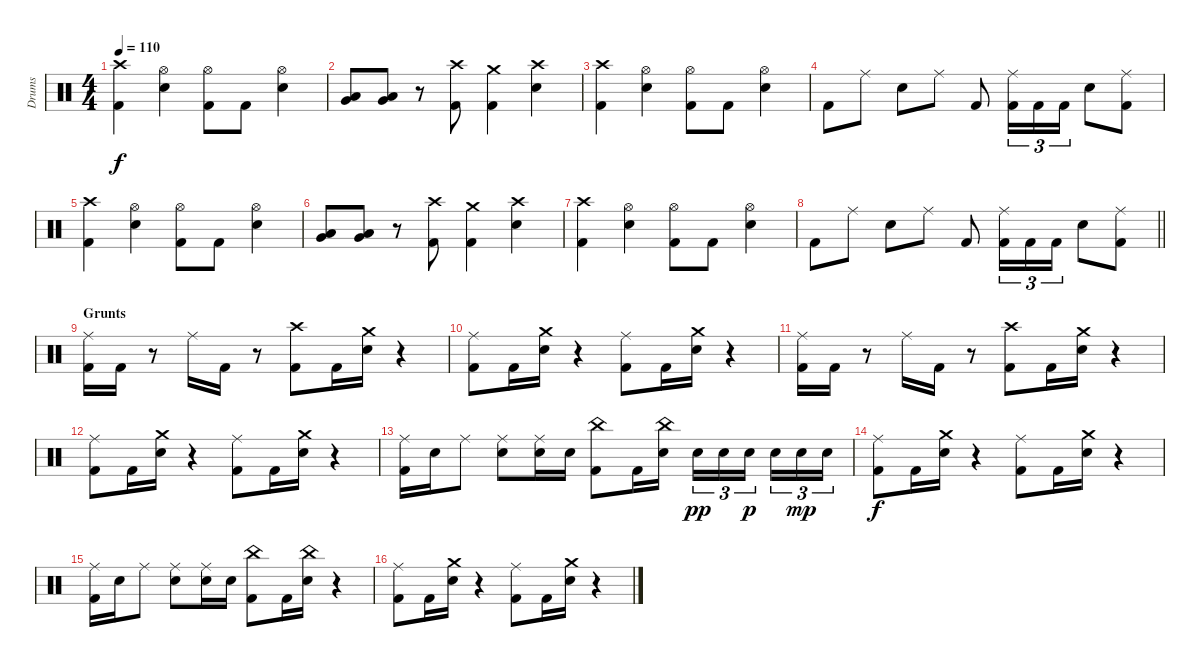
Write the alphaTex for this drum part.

\track ("Drums" "Drums") {instrument percussion}
\staff {score}
\articulation defaults
\ts (4 4)
\section ("" "")
\tempo 110
\clef neutral
\ks c
("Crash high (hit)" "Kick (hit) 2").4{dy f} ("Hi-Hat (open)" "Electric Snare (hit)").4 ("Hi-Hat (open)" "Kick (hit) 2").8 "Kick (hit) 2".8 ("Hi-Hat (open)" "Electric Snare (hit)").4 |
("Low Floor Tom (hit)" "Very Low Tom (hit)").8 ("Low Floor Tom (hit)" "Very Low Tom (hit)").8 r.8 ("Crash high (hit)" "Kick (hit) 2").8 ("Crash medium (hit)" "Kick (hit) 2").4 ("Crash high (hit)" "Electric Snare (hit)").4 |
("Crash high (hit)" "Kick (hit) 2").4 ("Hi-Hat (open)" "Electric Snare (hit)").4 ("Hi-Hat (open)" "Kick (hit) 2").8 "Kick (hit) 2".8 ("Hi-Hat (open)" "Electric Snare (hit)").4 |
"Kick (hit) 2".8 "Ride (middle)".8 "Electric Snare (hit)".8 "Ride (middle)".8 "Kick (hit) 2".8 ("Ride (middle)" "Kick (hit) 2").16{tu (3 2)} "Kick (hit) 2".16{tu (3 2)} "Kick (hit) 2".16{tu (3 2)} "Electric Snare (hit)".8 ("Ride (middle)" "Kick (hit) 2").8 |
("Crash high (hit)" "Kick (hit) 2").4 ("Hi-Hat (open)" "Electric Snare (hit)").4 ("Hi-Hat (open)" "Kick (hit) 2").8 "Kick (hit) 2".8 ("Hi-Hat (open)" "Electric Snare (hit)").4 |
("Low Floor Tom (hit)" "Very Low Tom (hit)").8 ("Low Floor Tom (hit)" "Very Low Tom (hit)").8 r.8 ("Crash high (hit)" "Kick (hit) 2").8 ("Crash medium (hit)" "Kick (hit) 2").4 ("Crash high (hit)" "Electric Snare (hit)").4 |
("Crash high (hit)" "Kick (hit) 2").4 ("Hi-Hat (open)" "Electric Snare (hit)").4 ("Hi-Hat (open)" "Kick (hit) 2").8 "Kick (hit) 2".8 ("Hi-Hat (open)" "Electric Snare (hit)").4 |
\barLineRight lightlight "Kick (hit) 2".8 "Ride (middle)".8 "Electric Snare (hit)".8 "Ride (middle)".8 "Kick (hit) 2".8
("Ride (middle)" "Kick (hit) 2").16{tu (3 2)} "Kick (hit) 2".16{tu (3 2)} "Kick (hit) 2".16{tu (3 2)} "Electric Snare (hit)".8 ("Ride (middle)" "Kick (hit) 2").8 |
\section ("" "Grunts")
("Ride (middle)" "Kick (hit) 2").16 "Kick (hit) 2".16 r.8 "Ride (middle)".16 "Kick (hit) 2".16 r.8 ("Crash high (hit)" "Kick (hit) 2").8 "Kick (hit) 2".16 ("Crash medium (hit)" "Electric Snare (hit)").16 r.4 |
("Ride (middle)" "Kick (hit) 2").8 "Kick (hit) 2".16 ("Crash medium (hit)" "Electric Snare (hit)").16 r.4 ("Ride (middle)" "Kick (hit) 2").8 "Kick (hit) 2".16 ("Crash medium (hit)" "Electric Snare (hit)").16 r.4 |
("Ride (middle)" "Kick (hit) 2").16 "Kick (hit) 2".16 r.8 "Ride (middle)".16 "Kick (hit) 2".16 r.8 ("Crash high (hit)" "Kick (hit) 2").8 "Kick (hit) 2".16 ("Crash medium (hit)" "Electric Snare (hit)").16 r.4 |
("Ride (middle)" "Kick (hit) 2").8 "Kick (hit) 2".16 ("Crash medium (hit)" "Electric Snare (hit)").16 r.4 ("Ride (middle)" "Kick (hit) 2").8 "Kick (hit) 2".16 ("Crash medium (hit)" "Electric Snare (hit)").16 r.4 |
("Ride (middle)" "Kick (hit) 2").16 "Electric Snare (hit)".16 "Ride (middle)".8 ("Ride (middle)" "Electric Snare (hit)").8 ("Ride (middle)" "Electric Snare (hit)").16 "Electric Snare (hit)".16 ("China (hit)" "Kick (hit) 2").8 "Kick (hit) 2".16 ("China (hit)" "Electric Snare (hit)").16 "Electric Snare (hit)".16{tu (3 2) dy pp} "Electric Snare (hit)".16{tu (3 2)} "Electric Snare (hit)".16{tu (3 2) dy p} "Electric Snare (hit)".16{tu (3 2)} "Electric Snare (hit)".16{tu (3 2) dy mp} "Electric Snare (hit)".16{tu (3 2)} |
("Ride (middle)" "Kick (hit) 2").8{dy f} "Kick (hit) 2".16 ("Crash medium (hit)" "Electric Snare (hit)").16 r.4 ("Ride (middle)" "Kick (hit) 2").8 "Kick (hit) 2".16 ("Crash medium (hit)" "Electric Snare (hit)").16 r.4 |
("Ride (middle)" "Kick (hit) 2").16 "Electric Snare (hit)".16 "Ride (middle)".8 ("Ride (middle)" "Electric Snare (hit)").8 ("Ride (middle)" "Electric Snare (hit)").16 "Electric Snare (hit)".16 ("China (hit)" "Kick (hit) 2").8 "Kick (hit) 2".16 ("China (hit)" "Electric Snare (hit)").16 r.4 |
("Ride (middle)" "Kick (hit) 2").8 "Kick (hit) 2".16 ("Crash medium (hit)" "Electric Snare (hit)").16 r.4 ("Ride (middle)" "Kick (hit) 2").8 "Kick (hit) 2".16 ("Crash medium (hit)" "Electric Snare (hit)").16 r.4
